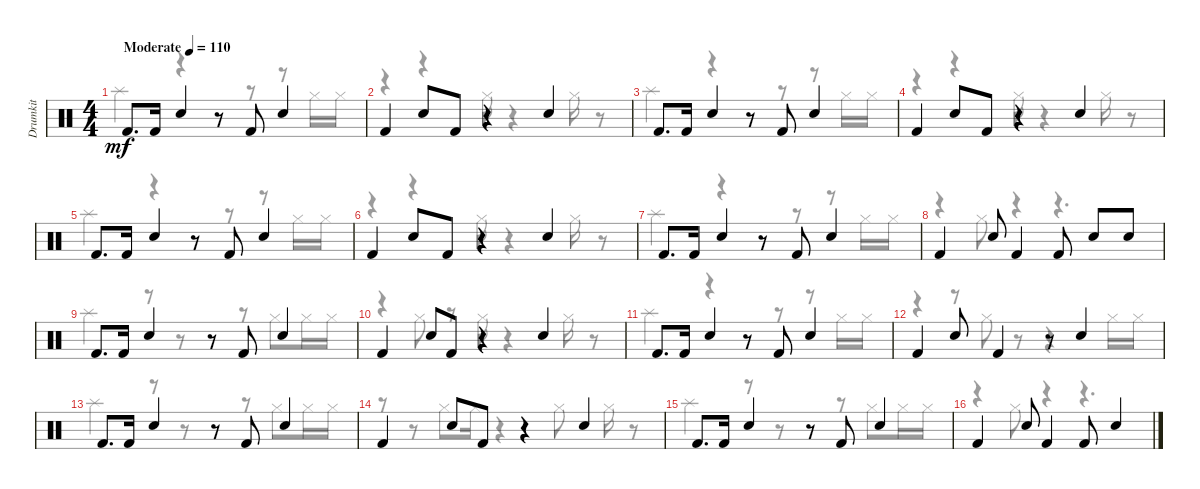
\track ("Drumkit" "Drumkit") {instrument percussion}
\staff {score}
\articulation defaults
\voice
\ts (4 4)
\tempo (110 "Moderate")
\clef neutral
\ks c "Kick (hit) 2".8{d dy mf} "Kick (hit) 2".16 "Snare (hit) 2".4
r.8 "Kick (hit) 2".8 "Snare (hit) 2".4 |
"Kick (hit) 2".4 "Snare (hit) 2".8 "Kick (hit) 2".8 r.4 "Snare (hit) 2".4 |
"Kick (hit) 2".8{d} "Kick (hit) 2".16 "Snare (hit) 2".4 r.8 "Kick (hit) 2".8 "Snare (hit) 2".4 |
"Kick (hit) 2".4 "Snare (hit) 2".8 "Kick (hit) 2".8 r.4 "Snare (hit) 2".4 |
"Kick (hit) 2".8{d} "Kick (hit) 2".16 "Snare (hit) 2".4 r.8 "Kick (hit) 2".8 "Snare (hit) 2".4 |
"Kick (hit) 2".4 "Snare (hit) 2".8 "Kick (hit) 2".8 r.4 "Snare (hit) 2".4 |
"Kick (hit) 2".8{d} "Kick (hit) 2".16 "Snare (hit) 2".4 r.8 "Kick (hit) 2".8 "Snare (hit) 2".4 |
"Kick (hit) 2".4 "Snare (hit) 2".8 "Kick (hit) 2".4 "Kick (hit) 2".8 "Snare (hit) 2".8 "Snare (hit) 2".8 |
"Kick (hit) 2".8{d} "Kick (hit) 2".16 "Snare (hit) 2".4 r.8 "Kick (hit) 2".8 "Snare (hit) 2".4 |
"Kick (hit) 2".4 "Snare (hit) 2".8 "Kick (hit) 2".8 r.4 "Snare (hit) 2".4 |
"Kick (hit) 2".8{d} "Kick (hit) 2".16 "Snare (hit) 2".4 r.8 "Kick (hit) 2".8 "Snare (hit) 2".4 |
"Kick (hit) 2".4 "Snare (hit) 2".8 "Kick (hit) 2".4 r.8 "Snare (hit) 2".4 |
"Kick (hit) 2".8{d} "Kick (hit) 2".16 "Snare (hit) 2".4 r.8 "Kick (hit) 2".8 "Snare (hit) 2".4 |
"Kick (hit) 2".4 "Snare (hit) 2".8 "Kick (hit) 2".8 r.4 "Snare (hit) 2".4 |
"Kick (hit) 2".8{d} "Kick (hit) 2".16 "Snare (hit) 2".4 r.8 "Kick (hit) 2".8 "Snare (hit) 2".4 |
"Kick (hit) 2".4 "Snare (hit) 2".8 "Kick (hit) 2".4 "Kick (hit) 2".8 "Snare (hit) 2".4
\voice
\clef neutral
\ottava regular
\simile none
\ks c "Splash (hit)".4{dy mf}
r.4 r.8 r.8 r.8 "Hi-Hat (closed)".16 "Hi-Hat (closed)".16 |
r.4 r.4 "Hi-Hat (closed)".16 r.4 "Hi-Hat (closed)".16 r.8 |
"Splash (hit)".4 r.4 r.8 r.8 r.8 "Hi-Hat (closed)".16 "Hi-Hat (closed)".16 |
r.4 r.4 "Hi-Hat (closed)".16 r.4 "Hi-Hat (closed)".16 r.8 |
"Splash (hit)".4 r.4 r.8 r.8 r.8 "Hi-Hat (closed)".16 "Hi-Hat (closed)".16 |
r.4 r.4 "Hi-Hat (closed)".16 r.4 "Hi-Hat (closed)".16 r.8 |
"Splash (hit)".4 r.4 r.8 r.8 r.8 "Hi-Hat (closed)".16 "Hi-Hat (closed)".16 |
r.4 "Hi-Hat (closed)".8 r.4 r.4{d} |
"Splash (hit)".4 r.8 r.8 r.8 r.8 "Hi-Hat (closed)".8 "Hi-Hat (closed)".16 "Hi-Hat (closed)".16 |
r.4 "Hi-Hat (closed)".8 r.8 "Hi-Hat (closed)".16 r.4 "Hi-Hat (closed)".16 r.8 |
"Splash (hit)".4 r.4 r.8 r.8 r.8 "Hi-Hat (closed)".16 "Hi-Hat (closed)".16 |
r.4 r.8 "Hi-Hat (closed)".8 r.8 r.4 "Hi-Hat (closed)".16 "Hi-Hat (closed)".16 |
"Splash (hit)".4 r.8 r.8 r.8 r.8 "Hi-Hat (closed)".8 "Hi-Hat (closed)".16 "Hi-Hat (closed)".16 |
r.8 r.8 "Hi-Hat (closed)".8 "Hi-Hat (closed)".16 r.4 "Hi-Hat (closed)".8 "Hi-Hat (closed)".16 r.8 |
"Splash (hit)".4 r.8 r.8 r.8 r.8 "Hi-Hat (closed)".8 "Hi-Hat (closed)".16 "Hi-Hat (closed)".16 |
r.4 "Hi-Hat (closed)".8 r.4 r.4{d}
